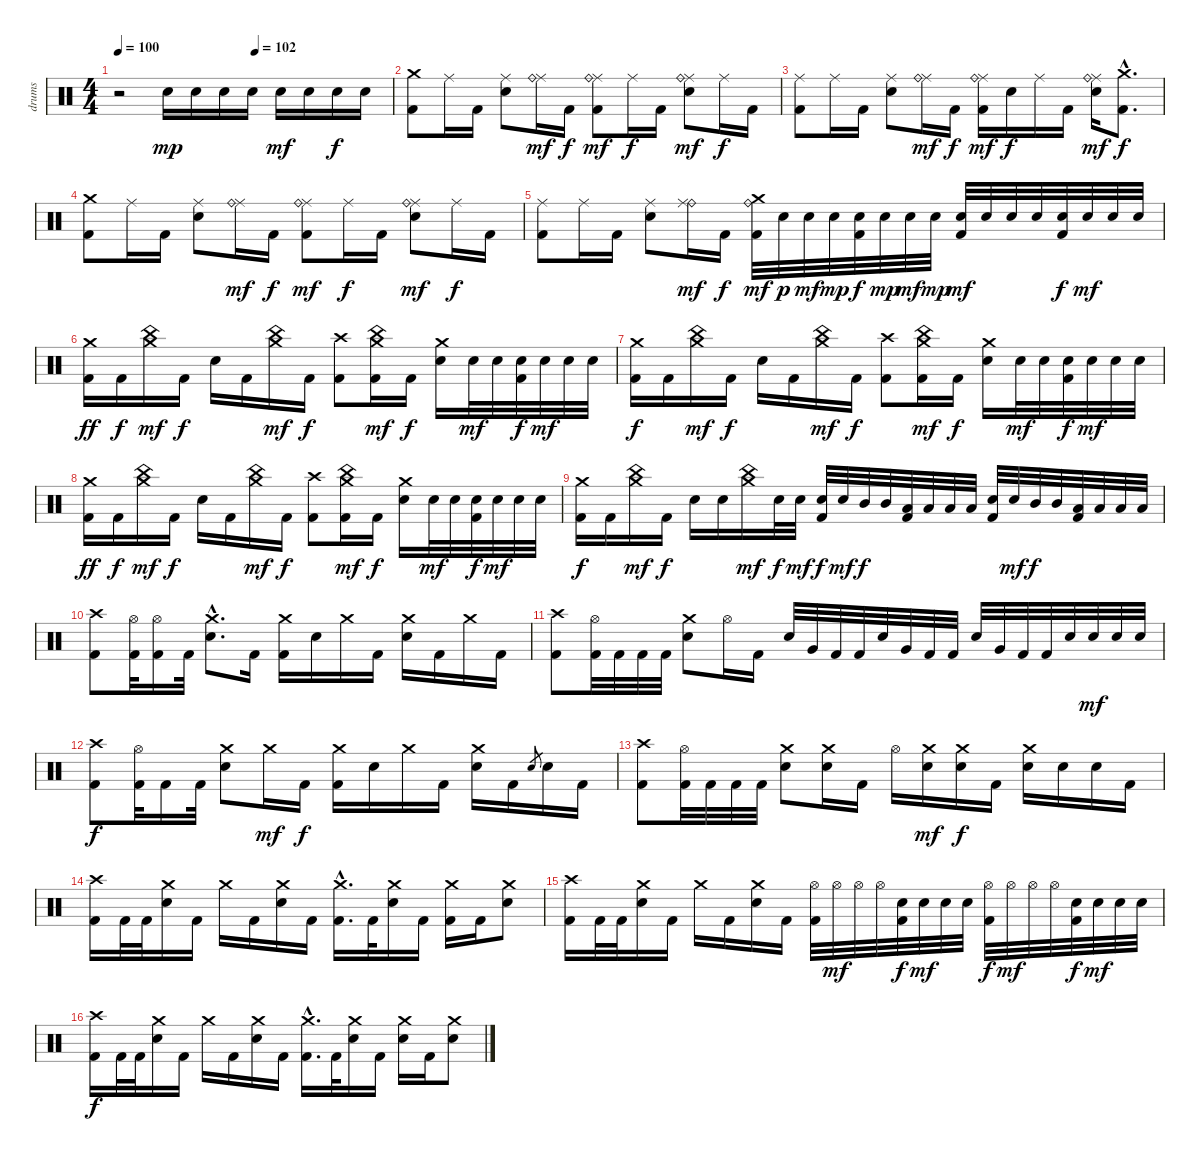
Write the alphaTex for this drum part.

\track ("drums" "drums") {instrument percussion}
\staff {score}
\articulation defaults
\ts (4 4)
\tempo 100
\tempo (102 0.5)
\clef neutral
\ks c
r.2{dy f} "Electric Snare (hit)".16{dy mp} "Electric Snare (hit)".16 "Electric Snare (hit)".16 "Electric Snare (hit)".16 "Electric Snare (hit)".16{dy mf} "Electric Snare (hit)".16 "Electric Snare (hit)".16{dy f} "Electric Snare (hit)".16 |
("Crash medium (hit)" "Kick (hit) 2").8 "Ride (middle)".16 "Kick (hit) 2".16 ("Ride (middle)" "Electric Snare (hit)").8 ("Ride (middle)" "Ride (bell)").16{dy mf} "Kick (hit) 2".16{dy f} ("Ride (middle)" "Ride (bell)" "Kick (hit) 2").8{dy mf} "Ride (middle)".16{dy f} "Kick (hit) 2".16 ("Ride (middle)" "Ride (bell)" "Electric Snare (hit)").8{dy mf} "Ride (middle)".16{dy f} "Kick (hit) 2".16 |
("Ride (middle)" "Kick (hit) 2").8 "Ride (middle)".16 "Kick (hit) 2".16 ("Ride (middle)" "Electric Snare (hit)").8 ("Ride (middle)" "Ride (bell)").16{dy mf} "Kick (hit) 2".16{dy f} ("Ride (middle)" "Ride (bell)" "Kick (hit) 2").16{dy mf} "Electric Snare (hit)".16{dy f} "Ride (middle)".16 "Kick (hit) 2".16 ("Ride (middle)" "Ride (bell)" "Electric Snare (hit)").16{dy mf} ("Crash medium (hit)"{hac} "Kick (hit) 2"{hac}).8{d dy f} |
("Crash medium (hit)" "Kick (hit) 2").8 "Ride (middle)".16 "Kick (hit) 2".16 ("Ride (middle)" "Electric Snare (hit)").8 ("Ride (middle)" "Ride (bell)").16{dy mf} "Kick (hit) 2".16{dy f} ("Ride (middle)" "Ride (bell)" "Kick (hit) 2").8{dy mf} "Ride (middle)".16{dy f} "Kick (hit) 2".16 ("Ride (middle)" "Ride (bell)" "Electric Snare (hit)").8{dy mf} "Ride (middle)".16{dy f} "Kick (hit) 2".16 |
("Ride (middle)" "Kick (hit) 2").8 "Ride (middle)".16 "Kick (hit) 2".16 ("Ride (middle)" "Electric Snare (hit)").8 ("Ride (bell)" "Ride (middle)").16{dy mf} "Kick (hit) 2".16{dy f} ("Crash medium (hit)" "Ride (bell)" "Kick (hit) 2").32{dy mf} "Electric Snare (hit)".32{dy p} "Electric Snare (hit)".32{dy mf} "Electric Snare (hit)".32{dy mp} ("Electric Snare (hit)" "Kick (hit) 2").32{dy f} "Electric Snare (hit)".32{dy mp} "Electric Snare (hit)".32{dy mf} "Electric Snare (hit)".32{dy mp} ("Electric Snare (hit)" "Kick (hit) 2").32{dy mf} "Electric Snare (hit)".32 "Electric Snare (hit)".32 "Electric Snare (hit)".32 ("Electric Snare (hit)" "Kick (hit) 2").32{dy f} "Electric Snare (hit)".32{dy mf} "Electric Snare (hit)".32 "Electric Snare (hit)".32 |
("Crash medium (hit)" "Kick (hit) 2").16{dy ff} "Kick (hit) 2".16{dy f} ("Crash medium (hit)" "China (hit)").16{dy mf} "Kick (hit) 2".16{dy f} "Electric Snare (hit)".16 "Kick (hit) 2".16 ("Crash medium (hit)" "China (hit)").16{dy mf} "Kick (hit) 2".16{dy f} ("Crash high (hit)" "Kick (hit) 2").8 ("Crash medium (hit)" "China (hit)" "Kick (hit) 2").16{dy mf} "Kick (hit) 2".16{dy f} ("Crash medium (hit)" "Electric Snare (hit)").16 "Electric Snare (hit)".32{dy mf} "Electric Snare (hit)".32 ("Electric Snare (hit)" "Kick (hit) 2").32{dy f} "Electric Snare (hit)".32{dy mf} "Electric Snare (hit)".32 "Electric Snare (hit)".32 |
("Crash medium (hit)" "Kick (hit) 2").16{dy f} "Kick (hit) 2".16 ("Crash medium (hit)" "China (hit)").16{dy mf} "Kick (hit) 2".16{dy f} "Electric Snare (hit)".16 "Kick (hit) 2".16 ("Crash medium (hit)" "China (hit)").16{dy mf} "Kick (hit) 2".16{dy f} ("Crash high (hit)" "Kick (hit) 2").8 ("Crash medium (hit)" "China (hit)" "Kick (hit) 2").16{dy mf} "Kick (hit) 2".16{dy f} ("Crash medium (hit)" "Electric Snare (hit)").16 "Electric Snare (hit)".32{dy mf} "Electric Snare (hit)".32 ("Electric Snare (hit)" "Kick (hit) 2").32{dy f} "Electric Snare (hit)".32{dy mf} "Electric Snare (hit)".32 "Electric Snare (hit)".32 |
("Crash medium (hit)" "Kick (hit) 2").16{dy ff} "Kick (hit) 2".16{dy f} ("Crash medium (hit)" "China (hit)").16{dy mf} "Kick (hit) 2".16{dy f} "Electric Snare (hit)".16 "Kick (hit) 2".16 ("Crash medium (hit)" "China (hit)").16{dy mf} "Kick (hit) 2".16{dy f} ("Crash high (hit)" "Kick (hit) 2").8 ("Crash medium (hit)" "China (hit)" "Kick (hit) 2").16{dy mf} "Kick (hit) 2".16{dy f} ("Crash medium (hit)" "Electric Snare (hit)").16 "Electric Snare (hit)".32{dy mf} "Electric Snare (hit)".32 ("Electric Snare (hit)" "Kick (hit) 2").32{dy f} "Electric Snare (hit)".32{dy mf} "Electric Snare (hit)".32 "Electric Snare (hit)".32 |
("Crash medium (hit)" "Kick (hit) 2").16{dy f} "Kick (hit) 2".16 ("Crash medium (hit)" "China (hit)").16{dy mf} "Kick (hit) 2".16{dy f} "Electric Snare (hit)".16 "Electric Snare (hit)".16 ("Crash medium (hit)" "China (hit)").16{dy mf} "Electric Snare (hit)".32{dy f} "Electric Snare (hit)".32{dy mf} ("Electric Snare (hit)" "Kick (hit) 2").32{dy f} "Electric Snare (hit)".32{dy mf} "Mid Tom (hit)".32{dy f} "Mid Tom (hit)".32 ("Low Tom (hit)" "Kick (hit) 2").32 "Low Tom (hit)".32 "Low Floor Tom (hit)".32 "Low Floor Tom (hit)".32 ("Electric Snare (hit)" "Kick (hit) 2").32 "Electric Snare (hit)".32{dy mf} "Mid Tom (hit)".32{dy f} "Mid Tom (hit)".32 ("Low Tom (hit)" "Kick (hit) 2").32 "Low Tom (hit)".32 "Low Tom (hit)".32 "Low Tom (hit)".32 |
("Crash high (hit)" "Kick (hit) 2").8 ("Hi-Hat (open)" "Kick (hit) 2").32 ("Hi-Hat (open)" "Kick (hit) 2").16 "Kick (hit) 2".32 ("Crash medium (hit)"{hac} "Electric Snare (hit)"{hac}).8{d} "Kick (hit) 2".16 ("Crash medium (hit)" "Kick (hit) 2").16 "Electric Snare (hit)".16 "Crash medium (hit)".16 "Kick (hit) 2".16 ("Crash medium (hit)" "Electric Snare (hit)").16 "Kick (hit) 2".16 "Crash medium (hit)".16 "Kick (hit) 2".16 |
("Crash high (hit)" "Kick (hit) 2").8 ("Hi-Hat (open)" "Kick (hit) 2").32 "Kick (hit) 2".32 "Kick (hit) 2".32 "Kick (hit) 2".32 ("Crash medium (hit)" "Electric Snare (hit)").8 "Hi-Hat (open)".16 "Kick (hit) 2".16 "Electric Snare (hit)".32 "Very Low Tom (hit)".32 "Kick (hit) 2".32 "Kick (hit) 2".32 "Electric Snare (hit)".32 "Very Low Tom (hit)".32 "Kick (hit) 2".32 "Kick (hit) 2".32 "Electric Snare (hit)".32 "Very Low Tom (hit)".32 "Kick (hit) 2".32 "Kick (hit) 2".32 "Electric Snare (hit)".32 "Electric Snare (hit)".32{dy mf} "Electric Snare (hit)".32 "Electric Snare (hit)".32 |
("Crash high (hit)" "Kick (hit) 2").8{dy f} ("Hi-Hat (open)" "Kick (hit) 2").32 "Kick (hit) 2".16 "Kick (hit) 2".32 ("Crash medium (hit)" "Electric Snare (hit)").8 "Crash medium (hit)".16{dy mf} "Kick (hit) 2".16{dy f} ("Crash medium (hit)" "Kick (hit) 2").16 "Electric Snare (hit)".16 "Crash medium (hit)".16 "Kick (hit) 2".16 ("Crash medium (hit)" "Electric Snare (hit)").16 "Kick (hit) 2".16 "Electric Snare (hit)".8{gr} "Electric Snare (hit)".16 "Kick (hit) 2".16 |
("Crash high (hit)" "Kick (hit) 2").8 ("Hi-Hat (open)" "Kick (hit) 2").32 "Kick (hit) 2".32 "Kick (hit) 2".32 "Kick (hit) 2".32 ("Crash medium (hit)" "Electric Snare (hit)").8 ("Crash medium (hit)" "Electric Snare (hit)").16 "Kick (hit) 2".16 "Hi-Hat (open)".16 ("Crash medium (hit)" "Electric Snare (hit)").16{dy mf} ("Crash medium (hit)" "Electric Snare (hit)").16{dy f} "Kick (hit) 2".16 ("Crash medium (hit)" "Electric Snare (hit)").16 "Electric Snare (hit)".16 "Electric Snare (hit)".16 "Kick (hit) 2".16 |
("Crash high (hit)" "Kick (hit) 2").16 "Kick (hit) 2".32 "Kick (hit) 2".32 ("Crash medium (hit)" "Electric Snare (hit)").16 "Kick (hit) 2".16 "Crash medium (hit)".16 "Kick (hit) 2".16 ("Crash medium (hit)" "Electric Snare (hit)").16 "Kick (hit) 2".16 ("Crash medium (hit)"{hac} "Kick (hit) 2"{hac}).16{d} "Kick (hit) 2".32 ("Crash medium (hit)" "Electric Snare (hit)").16 "Kick (hit) 2".16 ("Crash medium (hit)" "Kick (hit) 2").16 "Kick (hit) 2".16 ("Crash medium (hit)" "Electric Snare (hit)").8 |
("Crash high (hit)" "Kick (hit) 2").16 "Kick (hit) 2".32 "Kick (hit) 2".32 ("Crash medium (hit)" "Electric Snare (hit)").16 "Kick (hit) 2".16 "Crash medium (hit)".16 "Kick (hit) 2".16 ("Crash medium (hit)" "Electric Snare (hit)").16 "Kick (hit) 2".16 ("Hi-Hat (open)" "Kick (hit) 2").32 "Hi-Hat (open)".32{dy mf} "Hi-Hat (open)".32 "Hi-Hat (open)".32 ("Electric Snare (hit)" "Kick (hit) 2").32{dy f} "Electric Snare (hit)".32{dy mf} "Electric Snare (hit)".32 "Electric Snare (hit)".32 ("Hi-Hat (open)" "Kick (hit) 2").32{dy f} "Hi-Hat (open)".32{dy mf} "Hi-Hat (open)".32 "Hi-Hat (open)".32 ("Electric Snare (hit)" "Kick (hit) 2").32{dy f} "Electric Snare (hit)".32{dy mf} "Electric Snare (hit)".32 "Electric Snare (hit)".32 |
("Crash high (hit)" "Kick (hit) 2").16{dy f} "Kick (hit) 2".32 "Kick (hit) 2".32 ("Crash medium (hit)" "Electric Snare (hit)").16 "Kick (hit) 2".16 "Crash medium (hit)".16 "Kick (hit) 2".16 ("Crash medium (hit)" "Electric Snare (hit)").16 "Kick (hit) 2".16 ("Crash medium (hit)"{hac} "Kick (hit) 2"{hac}).16{d} "Kick (hit) 2".32 ("Crash medium (hit)" "Electric Snare (hit)").16 "Kick (hit) 2".16 ("Crash medium (hit)" "Electric Snare (hit)").16 "Kick (hit) 2".16 ("Crash medium (hit)" "Electric Snare (hit)").8
